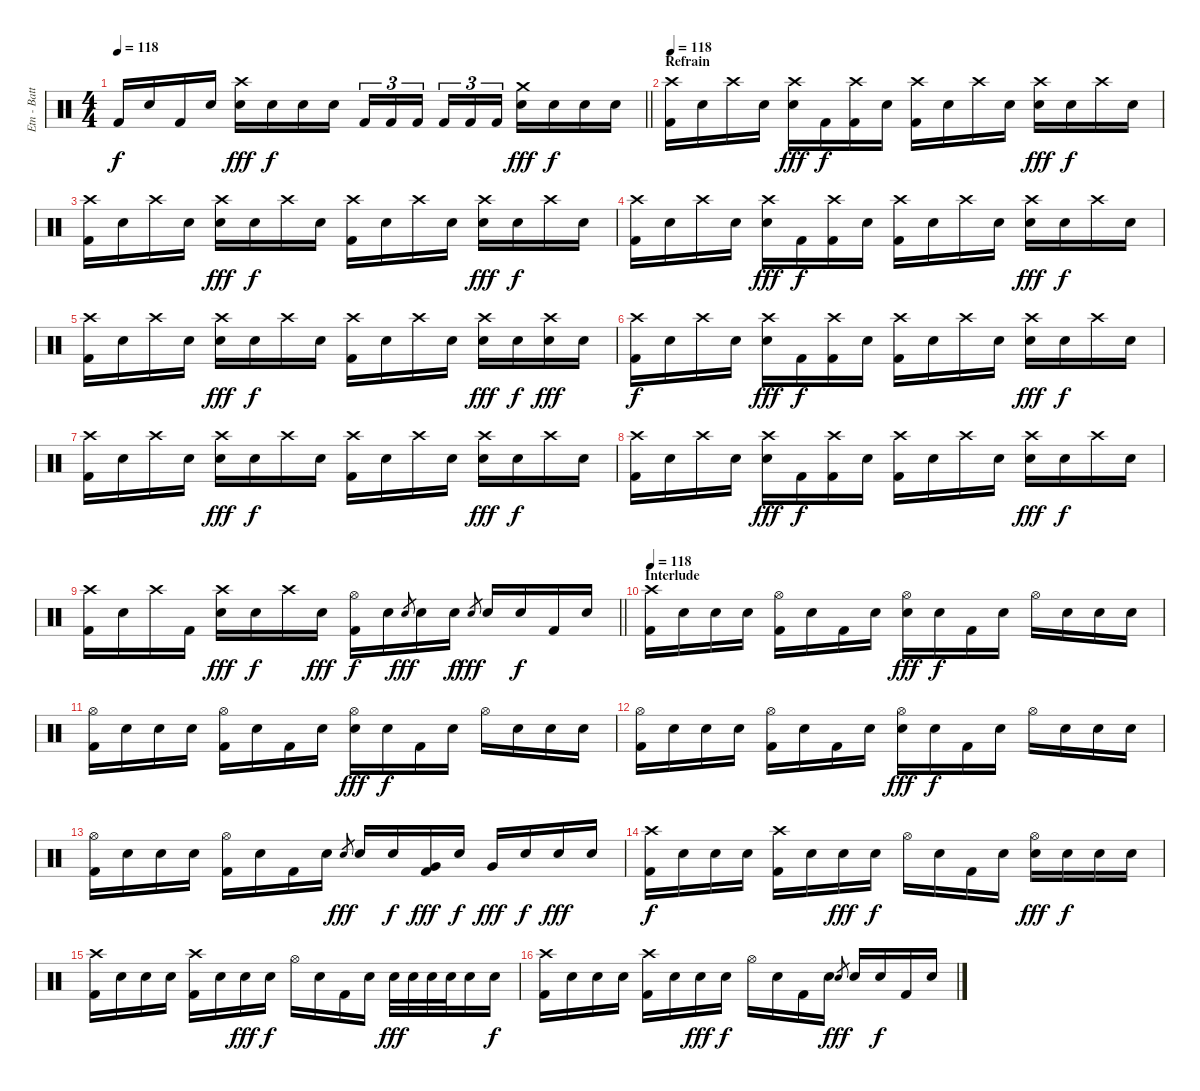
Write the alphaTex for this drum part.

\track ("Etn - Batterie" "Etn - Batt") {instrument percussion}
\staff {score}
\articulation defaults
\ts (4 4)
\tempo 118
\clef neutral
\barLineRight lightlight
\ks c "Kick (hit) 2".16{dy f} "Snare (hit)".16 "Kick (hit) 2".16 "Snare (hit)".16
("Crash high (hit)" "Electric Snare (hit)").16{dy fff} "Snare (hit)".16{dy f} "Snare (hit)".16 "Snare (hit)".16 "Kick (hit) 2".16{tu (3 2)} "Kick (hit) 2".16{tu (3 2)} "Kick (hit) 2".16{tu (3 2) beam splitsecondary} "Kick (hit) 2".16{tu (3 2)} "Kick (hit) 2".16{tu (3 2)} "Kick (hit) 2".16{tu (3 2)} ("Crash medium (hit)" "Electric Snare (hit)").16{dy fff} "Snare (hit)".16{dy f} "Snare (hit)".16 "Snare (hit)".16 |
\section ("" "Refrain")
\tempo 118
("Crash high (hit)" "Kick (hit) 2").16{volume 16 balance 8} "Snare (hit)".16 "Crash high (hit)".16 "Snare (hit)".16 ("Crash high (hit)" "Electric Snare (hit)").16{dy fff} "Kick (hit) 2".16{dy f} ("Crash high (hit)" "Kick (hit) 2").16 "Snare (hit)".16 ("Crash high (hit)" "Kick (hit) 2").16 "Snare (hit)".16 "Crash high (hit)".16 "Snare (hit)".16 ("Crash high (hit)" "Electric Snare (hit)").16{dy fff} "Snare (hit)".16{dy f} "Crash high (hit)".16 "Snare (hit)".16 |
("Crash high (hit)" "Kick (hit) 2").16 "Snare (hit)".16 "Crash high (hit)".16 "Snare (hit)".16 ("Crash high (hit)" "Electric Snare (hit)").16{dy fff} "Snare (hit)".16{dy f} "Crash high (hit)".16 "Snare (hit)".16 ("Crash high (hit)" "Kick (hit) 2").16 "Snare (hit)".16 "Crash high (hit)".16 "Snare (hit)".16 ("Crash high (hit)" "Electric Snare (hit)").16{dy fff} "Snare (hit)".16{dy f} "Crash high (hit)".16 "Snare (hit)".16 |
("Crash high (hit)" "Kick (hit) 2").16 "Snare (hit)".16 "Crash high (hit)".16 "Snare (hit)".16 ("Crash high (hit)" "Electric Snare (hit)").16{dy fff} "Kick (hit) 2".16{dy f} ("Crash high (hit)" "Kick (hit) 2").16 "Snare (hit)".16 ("Crash high (hit)" "Kick (hit) 2").16 "Snare (hit)".16 "Crash high (hit)".16 "Snare (hit)".16 ("Crash high (hit)" "Electric Snare (hit)").16{dy fff} "Snare (hit)".16{dy f} "Crash high (hit)".16 "Snare (hit)".16 |
("Crash high (hit)" "Kick (hit) 2").16 "Snare (hit)".16 "Crash high (hit)".16 "Snare (hit)".16 ("Crash high (hit)" "Electric Snare (hit)").16{dy fff} "Snare (hit)".16{dy f} "Crash high (hit)".16 "Snare (hit)".16 ("Crash high (hit)" "Kick (hit) 2").16 "Snare (hit)".16 "Crash high (hit)".16 "Snare (hit)".16 ("Crash high (hit)" "Electric Snare (hit)").16{dy fff} "Snare (hit)".16{dy f} ("Crash high (hit)" "Electric Snare (hit)").16{dy fff} "Electric Snare (hit)".16 |
("Crash high (hit)" "Kick (hit) 2").16{dy f} "Snare (hit)".16 "Crash high (hit)".16 "Snare (hit)".16 ("Crash high (hit)" "Electric Snare (hit)").16{dy fff} "Kick (hit) 2".16{dy f} ("Crash high (hit)" "Kick (hit) 2").16 "Snare (hit)".16 ("Crash high (hit)" "Kick (hit) 2").16 "Snare (hit)".16 "Crash high (hit)".16 "Snare (hit)".16 ("Crash high (hit)" "Electric Snare (hit)").16{dy fff} "Snare (hit)".16{dy f} "Crash high (hit)".16 "Snare (hit)".16 |
("Crash high (hit)" "Kick (hit) 2").16 "Snare (hit)".16 "Crash high (hit)".16 "Snare (hit)".16 ("Crash high (hit)" "Electric Snare (hit)").16{dy fff} "Snare (hit)".16{dy f} "Crash high (hit)".16 "Snare (hit)".16 ("Crash high (hit)" "Kick (hit) 2").16 "Snare (hit)".16 "Crash high (hit)".16 "Snare (hit)".16 ("Crash high (hit)" "Electric Snare (hit)").16{dy fff} "Snare (hit)".16{dy f} "Crash high (hit)".16 "Snare (hit)".16 |
("Crash high (hit)" "Kick (hit) 2").16 "Snare (hit)".16 "Crash high (hit)".16 "Snare (hit)".16 ("Crash high (hit)" "Electric Snare (hit)").16{dy fff} "Kick (hit) 2".16{dy f} ("Crash high (hit)" "Kick (hit) 2").16 "Snare (hit)".16 ("Crash high (hit)" "Kick (hit) 2").16 "Snare (hit)".16 "Crash high (hit)".16 "Snare (hit)".16 ("Crash high (hit)" "Electric Snare (hit)").16{dy fff} "Snare (hit)".16{dy f} "Crash high (hit)".16 "Snare (hit)".16 |
\barLineRight lightlight
("Crash high (hit)" "Kick (hit) 2").16 "Snare (hit)".16 "Crash high (hit)".16 "Kick (hit) 2".16 ("Crash high (hit)" "Electric Snare (hit)").16{dy fff} "Snare (hit)".16{dy f} "Crash high (hit)".16 "Electric Snare (hit)".16{dy fff} ("Hi-Hat (open)" "Kick (hit) 2").16{dy f} "Snare (hit)".16 "Electric Snare (hit)".8{gr dy fff} "Electric Snare (hit)".16 "Snare (hit)".16{dy f} "Electric Snare (hit)".8{gr dy fff} "Electric Snare (hit)".16 "Snare (hit)".16{dy f} "Kick (hit) 2".16 "Snare (hit)".16 |
\section ("" "Interlude")
\tempo 118
("Crash high (hit)" "Kick (hit) 2").16{volume 16 balance 8} "Snare (hit)".16 "Snare (hit)".16 "Snare (hit)".16 ("Hi-Hat (open)" "Kick (hit) 2").16 "Snare (hit)".16 "Kick (hit) 2".16 "Snare (hit)".16 ("Hi-Hat (open)" "Electric Snare (hit)").16{dy fff} "Snare (hit)".16{dy f} "Kick (hit) 2".16 "Snare (hit)".16 "Hi-Hat (open)".16 "Snare (hit)".16 "Snare (hit)".16 "Snare (hit)".16 |
("Hi-Hat (open)" "Kick (hit) 2").16 "Snare (hit)".16 "Snare (hit)".16 "Snare (hit)".16 ("Hi-Hat (open)" "Kick (hit) 2").16 "Snare (hit)".16 "Kick (hit) 2".16 "Snare (hit)".16 ("Hi-Hat (open)" "Electric Snare (hit)").16{dy fff} "Snare (hit)".16{dy f} "Kick (hit) 2".16 "Snare (hit)".16 "Hi-Hat (open)".16 "Snare (hit)".16 "Snare (hit)".16 "Snare (hit)".16 |
("Hi-Hat (open)" "Kick (hit) 2").16 "Snare (hit)".16 "Snare (hit)".16 "Snare (hit)".16 ("Hi-Hat (open)" "Kick (hit) 2").16 "Snare (hit)".16 "Kick (hit) 2".16 "Snare (hit)".16 ("Hi-Hat (open)" "Electric Snare (hit)").16{dy fff} "Snare (hit)".16{dy f} "Kick (hit) 2".16 "Snare (hit)".16 "Hi-Hat (open)".16 "Snare (hit)".16 "Snare (hit)".16 "Snare (hit)".16 |
("Hi-Hat (open)" "Kick (hit) 2").16 "Snare (hit)".16 "Snare (hit)".16 "Snare (hit)".16 ("Hi-Hat (open)" "Kick (hit) 2").16 "Snare (hit)".16 "Kick (hit) 2".16 "Snare (hit)".16 "Electric Snare (hit)".8{gr dy fff} "Electric Snare (hit)".16 "Snare (hit)".16{dy f} ("Very Low Tom (hit)" "Kick (hit) 2").16{dy fff} "Snare (hit)".16{dy f} "Very Low Tom (hit)".16{dy fff} "Snare (hit)".16{dy f} "Electric Snare (hit)".16{dy fff} "Electric Snare (hit)".16 |
("Crash high (hit)" "Kick (hit) 2").16{dy f} "Snare (hit)".16 "Snare (hit)".16 "Snare (hit)".16 ("Crash high (hit)" "Kick (hit) 2").16 "Snare (hit)".16 "Electric Snare (hit)".16{dy fff} "Snare (hit)".16{dy f} "Hi-Hat (open)".16 "Snare (hit)".16 "Kick (hit) 2".16 "Snare (hit)".16 ("Hi-Hat (open)" "Electric Snare (hit)").16{dy fff} "Snare (hit)".16{dy f} "Snare (hit)".16 "Snare (hit)".16 |
("Crash high (hit)" "Kick (hit) 2").16 "Snare (hit)".16 "Snare (hit)".16 "Snare (hit)".16 ("Crash high (hit)" "Kick (hit) 2").16 "Snare (hit)".16 "Electric Snare (hit)".16{dy fff} "Snare (hit)".16{dy f} "Hi-Hat (open)".16 "Snare (hit)".16 "Kick (hit) 2".16 "Snare (hit)".16 "Electric Snare (hit)".32{dy fff} "Electric Snare (hit)".32 "Electric Snare (hit)".32 "Electric Snare (hit)".32 "Electric Snare (hit)".16 "Snare (hit)".16{dy f} |
("Crash high (hit)" "Kick (hit) 2").16 "Snare (hit)".16 "Snare (hit)".16 "Snare (hit)".16 ("Crash high (hit)" "Kick (hit) 2").16 "Snare (hit)".16 "Electric Snare (hit)".16{dy fff} "Snare (hit)".16{dy f} "Hi-Hat (open)".16 "Snare (hit)".16 "Kick (hit) 2".16 "Snare (hit)".16 "Electric Snare (hit)".8{gr dy fff} "Electric Snare (hit)".16 "Snare (hit)".16{dy f} "Kick (hit) 2".16 "Snare (hit)".16
